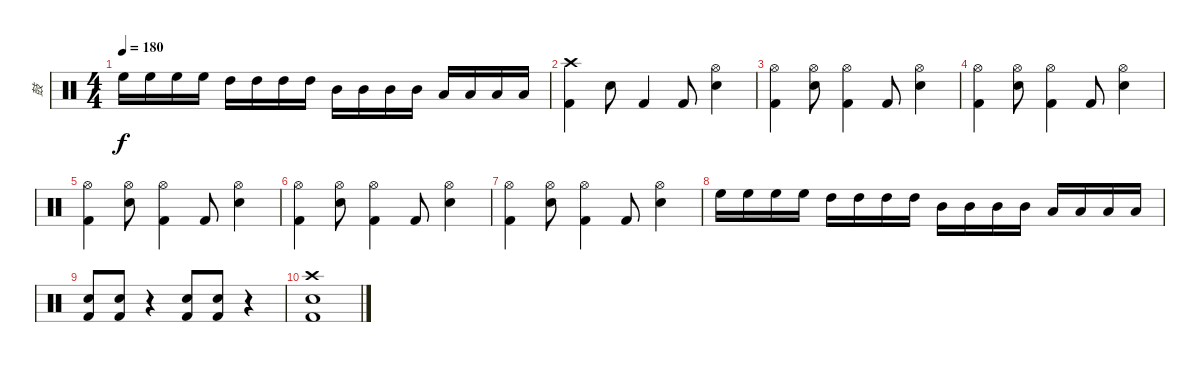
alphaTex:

\track ("鼓" "鼓") {instrument percussion}
\staff {score}
\articulation defaults
\ts (4 4)
\tempo 180
\clef neutral
\ks c "High Floor Tom (hit)".16{dy f} "High Floor Tom (hit)".16 "High Floor Tom (hit)".16 "High Floor Tom (hit)".16 "High Tom (hit)".16 "High Tom (hit)".16 "High Tom (hit)".16 "High Tom (hit)".16 "Mid Tom (hit)".16 "Mid Tom (hit)".16 "Mid Tom (hit)".16 "Mid Tom (hit)".16 "Low Tom (hit)".16 "Low Tom (hit)".16 "Low Tom (hit)".16 "Low Tom (hit)".16
|
("Crash high (hit)" "Kick (hit) 2").4 "Snare (hit) 2".8 "Kick (hit) 2".4 "Kick (hit) 2".8 ("Hi-Hat (open)" "Snare (hit) 2").4 |
("Hi-Hat (open)" "Kick (hit) 2").4 ("Hi-Hat (open)" "Snare (hit) 2").8 ("Hi-Hat (open)" "Kick (hit) 2").4 "Kick (hit) 2".8 ("Hi-Hat (open)" "Snare (hit) 2").4 |
("Hi-Hat (open)" "Kick (hit) 2").4 ("Hi-Hat (open)" "Snare (hit) 2").8 ("Hi-Hat (open)" "Kick (hit) 2").4 "Kick (hit) 2".8 ("Hi-Hat (open)" "Snare (hit) 2").4 |
("Hi-Hat (open)" "Kick (hit) 2").4 ("Hi-Hat (open)" "Snare (hit) 2").8 ("Hi-Hat (open)" "Kick (hit) 2").4 "Kick (hit) 2".8 ("Hi-Hat (open)" "Snare (hit) 2").4 |
("Hi-Hat (open)" "Kick (hit) 2").4 ("Hi-Hat (open)" "Snare (hit) 2").8 ("Hi-Hat (open)" "Kick (hit) 2").4 "Kick (hit) 2".8 ("Hi-Hat (open)" "Snare (hit) 2").4 |
("Hi-Hat (open)" "Kick (hit) 2").4 ("Hi-Hat (open)" "Snare (hit) 2").8 ("Hi-Hat (open)" "Kick (hit) 2").4 "Kick (hit) 2".8 ("Hi-Hat (open)" "Snare (hit) 2").4 |
"High Floor Tom (hit)".16 "High Floor Tom (hit)".16 "High Floor Tom (hit)".16 "High Floor Tom (hit)".16 "High Tom (hit)".16 "High Tom (hit)".16 "High Tom (hit)".16 "High Tom (hit)".16 "Mid Tom (hit)".16 "Mid Tom (hit)".16 "Mid Tom (hit)".16 "Mid Tom (hit)".16 "Low Tom (hit)".16 "Low Tom (hit)".16 "Low Tom (hit)".16 "Low Tom (hit)".16 |
("Snare (hit) 2" "Kick (hit) 2").8 ("Snare (hit) 2" "Kick (hit) 2").8 r.4 ("Snare (hit) 2" "Kick (hit) 2").8 ("Snare (hit) 2" "Kick (hit) 2").8 r.4 |
("Crash high (hit)" "Snare (hit) 2" "Kick (hit) 2").1
